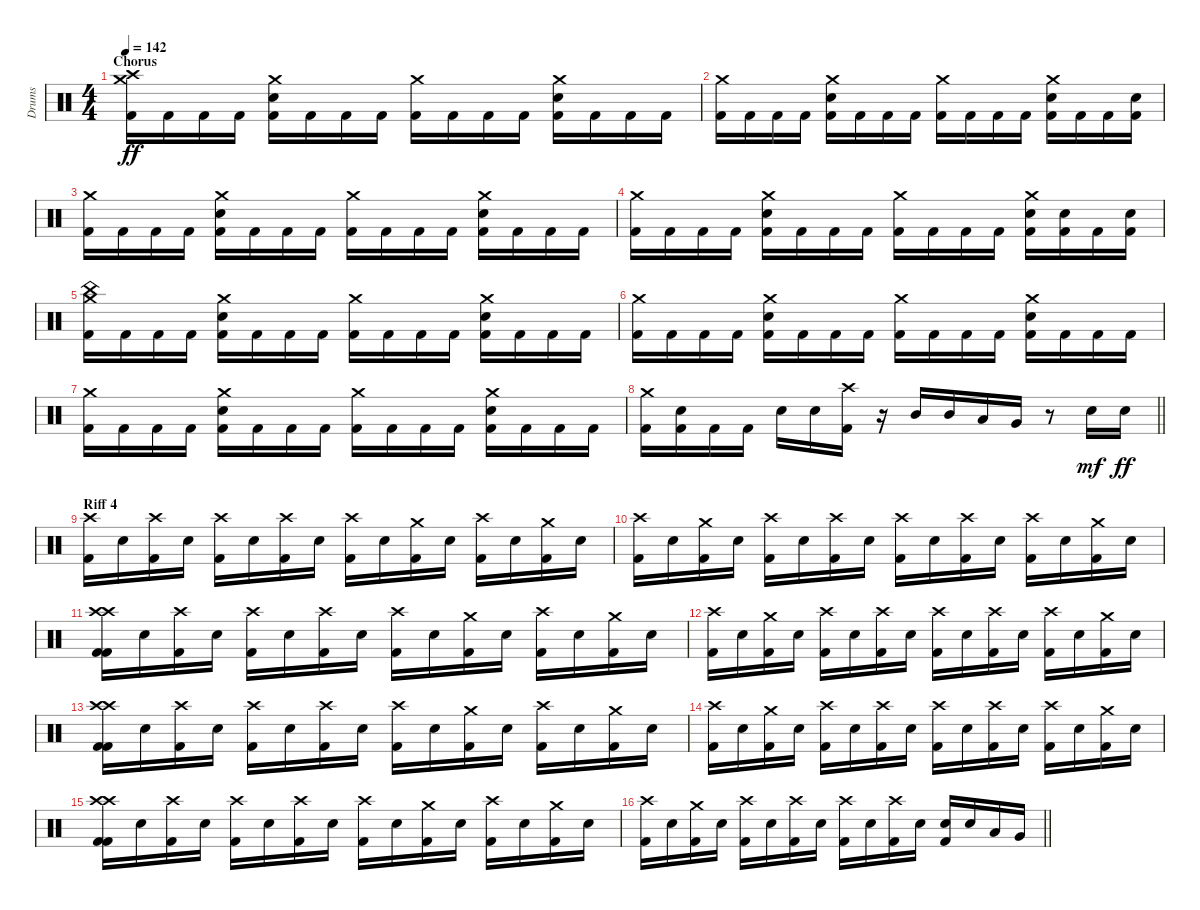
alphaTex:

\track ("Drums" "Drums") {instrument percussion}
\staff {score}
\articulation defaults
\ts (4 4)
\section ("" "Chorus")
\tempo 142
\clef neutral
\ks c
("Crash high (hit)" "Crash medium (hit)" "Kick (hit) 2").16{dy ff} "Kick (hit) 2".16 "Kick (hit) 2".16 "Kick (hit) 2".16 ("Crash medium (hit)" "Kick (hit) 2" "Snare (hit) 2").16 "Kick (hit) 2".16 "Kick (hit) 2".16 "Kick (hit) 2".16 ("Crash medium (hit)" "Kick (hit) 2").16 "Kick (hit) 2".16 "Kick (hit) 2".16 "Kick (hit) 2".16 ("Crash medium (hit)" "Kick (hit) 2" "Snare (hit) 2").16 "Kick (hit) 2".16 "Kick (hit) 2".16 "Kick (hit) 2".16 |
("Crash medium (hit)" "Kick (hit) 2").16 "Kick (hit) 2".16 "Kick (hit) 2".16 "Kick (hit) 2".16 ("Crash medium (hit)" "Kick (hit) 2" "Snare (hit) 2").16 "Kick (hit) 2".16 "Kick (hit) 2".16 "Kick (hit) 2".16 ("Crash medium (hit)" "Kick (hit) 2").16 "Kick (hit) 2".16 "Kick (hit) 2".16 "Kick (hit) 2".16 ("Crash medium (hit)" "Kick (hit) 2" "Snare (hit) 2").16 "Kick (hit) 2".16 "Kick (hit) 2".16 ("Kick (hit) 2" "Snare (hit) 2").16 |
("Crash medium (hit)" "Kick (hit) 2").16 "Kick (hit) 2".16 "Kick (hit) 2".16 "Kick (hit) 2".16 ("Crash medium (hit)" "Kick (hit) 2" "Snare (hit) 2").16 "Kick (hit) 2".16 "Kick (hit) 2".16 "Kick (hit) 2".16 ("Crash medium (hit)" "Kick (hit) 2").16 "Kick (hit) 2".16 "Kick (hit) 2".16 "Kick (hit) 2".16 ("Crash medium (hit)" "Kick (hit) 2" "Snare (hit) 2").16 "Kick (hit) 2".16 "Kick (hit) 2".16 "Kick (hit) 2".16 |
("Crash medium (hit)" "Kick (hit) 2").16 "Kick (hit) 2".16 "Kick (hit) 2".16 "Kick (hit) 2".16 ("Crash medium (hit)" "Kick (hit) 2" "Snare (hit) 2").16 "Kick (hit) 2".16 "Kick (hit) 2".16 "Kick (hit) 2".16 ("Crash medium (hit)" "Kick (hit) 2").16 "Kick (hit) 2".16 "Kick (hit) 2".16 "Kick (hit) 2".16 ("Crash medium (hit)" "Kick (hit) 2" "Snare (hit) 2").16 ("Kick (hit) 2" "Snare (hit) 2").16 "Kick (hit) 2".16 ("Kick (hit) 2" "Snare (hit) 2").16 |
("China (hit)" "Crash medium (hit)" "Kick (hit) 2").16 "Kick (hit) 2".16 "Kick (hit) 2".16 "Kick (hit) 2".16 ("Crash medium (hit)" "Kick (hit) 2" "Snare (hit) 2").16 "Kick (hit) 2".16 "Kick (hit) 2".16 "Kick (hit) 2".16 ("Crash medium (hit)" "Kick (hit) 2").16 "Kick (hit) 2".16 "Kick (hit) 2".16 "Kick (hit) 2".16 ("Crash medium (hit)" "Kick (hit) 2" "Snare (hit) 2").16 "Kick (hit) 2".16 "Kick (hit) 2".16 "Kick (hit) 2".16 |
("Crash medium (hit)" "Kick (hit) 2").16 "Kick (hit) 2".16 "Kick (hit) 2".16 "Kick (hit) 2".16 ("Crash medium (hit)" "Kick (hit) 2" "Snare (hit) 2").16 "Kick (hit) 2".16 "Kick (hit) 2".16 "Kick (hit) 2".16 ("Crash medium (hit)" "Kick (hit) 2").16 "Kick (hit) 2".16 "Kick (hit) 2".16 "Kick (hit) 2".16 ("Crash medium (hit)" "Kick (hit) 2" "Snare (hit) 2").16 "Kick (hit) 2".16 "Kick (hit) 2".16 "Kick (hit) 2".16 |
("Crash medium (hit)" "Kick (hit) 2").16 "Kick (hit) 2".16 "Kick (hit) 2".16 "Kick (hit) 2".16 ("Crash medium (hit)" "Kick (hit) 2" "Snare (hit) 2").16 "Kick (hit) 2".16 "Kick (hit) 2".16 "Kick (hit) 2".16 ("Crash medium (hit)" "Kick (hit) 2").16 "Kick (hit) 2".16 "Kick (hit) 2".16 "Kick (hit) 2".16 ("Crash medium (hit)" "Kick (hit) 2" "Snare (hit) 2").16 "Kick (hit) 2".16 "Kick (hit) 2".16 "Kick (hit) 2".16 |
\barLineRight lightlight
("Crash medium (hit)" "Kick (hit) 2").16 ("Kick (hit) 2" "Snare (hit) 2").16 "Kick (hit) 2".16 "Kick (hit) 2".16 "Snare (hit) 2".16 "Snare (hit) 2".16 ("Crash high (hit)" "Kick (hit) 2").16 r.16 "Mid Tom (hit)".16 "Mid Tom (hit)".16 "Low Tom (hit)".16 "Very Low Tom (hit)".16 r.8 "Snare (hit) 2".16{dy mf} "Snare (hit) 2".16{dy ff} |
\section ("" "Riff 4")
("Crash high (hit)" "Kick (hit) 2").16 "Snare (hit) 2".16 ("Crash high (hit)" "Kick (hit) 2").16 "Snare (hit) 2".16 ("Crash high (hit)" "Kick (hit) 2").16 "Snare (hit) 2".16 ("Crash high (hit)" "Kick (hit) 2").16 "Snare (hit) 2".16 ("Crash high (hit)" "Kick (hit) 2").16 "Snare (hit) 2".16 ("Crash medium (hit)" "Kick (hit) 2").16 "Snare (hit) 2".16 ("Crash high (hit)" "Kick (hit) 2").16 "Snare (hit) 2".16 ("Crash medium (hit)" "Kick (hit) 2").16 "Snare (hit) 2".16 |
("Crash high (hit)" "Kick (hit) 2").16 "Snare (hit) 2".16 ("Crash medium (hit)" "Kick (hit) 2").16 "Snare (hit) 2".16 ("Crash high (hit)" "Kick (hit) 2").16 "Snare (hit) 2".16 ("Crash high (hit)" "Kick (hit) 2").16 "Snare (hit) 2".16 ("Crash high (hit)" "Kick (hit) 2").16 "Snare (hit) 2".16 ("Crash high (hit)" "Kick (hit) 2").16 "Snare (hit) 2".16 ("Crash high (hit)" "Kick (hit) 2").16 "Snare (hit) 2".16 ("Crash medium (hit)" "Kick (hit) 2").16 "Snare (hit) 2".16 |
("Crash high (hit)" "Kick (hit) 2" "Crash high (hit)" "Kick (hit) 2").16 "Snare (hit) 2".16 ("Crash high (hit)" "Kick (hit) 2").16 "Snare (hit) 2".16 ("Crash high (hit)" "Kick (hit) 2").16 "Snare (hit) 2".16 ("Crash high (hit)" "Kick (hit) 2").16 "Snare (hit) 2".16 ("Crash high (hit)" "Kick (hit) 2").16 "Snare (hit) 2".16 ("Crash medium (hit)" "Kick (hit) 2").16 "Snare (hit) 2".16 ("Crash high (hit)" "Kick (hit) 2").16 "Snare (hit) 2".16 ("Crash medium (hit)" "Kick (hit) 2").16 "Snare (hit) 2".16 |
("Crash high (hit)" "Kick (hit) 2").16 "Snare (hit) 2".16 ("Crash medium (hit)" "Kick (hit) 2").16 "Snare (hit) 2".16 ("Crash high (hit)" "Kick (hit) 2").16 "Snare (hit) 2".16 ("Crash high (hit)" "Kick (hit) 2").16 "Snare (hit) 2".16 ("Crash high (hit)" "Kick (hit) 2").16 "Snare (hit) 2".16 ("Crash high (hit)" "Kick (hit) 2").16 "Snare (hit) 2".16 ("Crash high (hit)" "Kick (hit) 2").16 "Snare (hit) 2".16 ("Crash medium (hit)" "Kick (hit) 2").16 "Snare (hit) 2".16 |
("Crash high (hit)" "Kick (hit) 2" "Crash high (hit)" "Kick (hit) 2").16 "Snare (hit) 2".16 ("Crash high (hit)" "Kick (hit) 2").16 "Snare (hit) 2".16 ("Crash high (hit)" "Kick (hit) 2").16 "Snare (hit) 2".16 ("Crash high (hit)" "Kick (hit) 2").16 "Snare (hit) 2".16 ("Crash high (hit)" "Kick (hit) 2").16 "Snare (hit) 2".16 ("Crash medium (hit)" "Kick (hit) 2").16 "Snare (hit) 2".16 ("Crash high (hit)" "Kick (hit) 2").16 "Snare (hit) 2".16 ("Crash medium (hit)" "Kick (hit) 2").16 "Snare (hit) 2".16 |
("Crash high (hit)" "Kick (hit) 2").16 "Snare (hit) 2".16 ("Crash medium (hit)" "Kick (hit) 2").16 "Snare (hit) 2".16 ("Crash high (hit)" "Kick (hit) 2").16 "Snare (hit) 2".16 ("Crash high (hit)" "Kick (hit) 2").16 "Snare (hit) 2".16 ("Crash high (hit)" "Kick (hit) 2").16 "Snare (hit) 2".16 ("Crash high (hit)" "Kick (hit) 2").16 "Snare (hit) 2".16 ("Crash high (hit)" "Kick (hit) 2").16 "Snare (hit) 2".16 ("Crash medium (hit)" "Kick (hit) 2").16 "Snare (hit) 2".16 |
("Crash high (hit)" "Kick (hit) 2" "Crash high (hit)" "Kick (hit) 2").16 "Snare (hit) 2".16 ("Crash high (hit)" "Kick (hit) 2").16 "Snare (hit) 2".16 ("Crash high (hit)" "Kick (hit) 2").16 "Snare (hit) 2".16 ("Crash high (hit)" "Kick (hit) 2").16 "Snare (hit) 2".16 ("Crash high (hit)" "Kick (hit) 2").16 "Snare (hit) 2".16 ("Crash medium (hit)" "Kick (hit) 2").16 "Snare (hit) 2".16 ("Crash high (hit)" "Kick (hit) 2").16 "Snare (hit) 2".16 ("Crash medium (hit)" "Kick (hit) 2").16 "Snare (hit) 2".16 |
\barLineRight lightlight
("Crash high (hit)" "Kick (hit) 2").16 "Snare (hit) 2".16 ("Crash medium (hit)" "Kick (hit) 2").16 "Snare (hit) 2".16 ("Crash high (hit)" "Kick (hit) 2").16 "Snare (hit) 2".16 ("Crash high (hit)" "Kick (hit) 2").16 "Snare (hit) 2".16 ("Crash high (hit)" "Kick (hit) 2").16 "Snare (hit) 2".16 ("Crash high (hit)" "Kick (hit) 2").16 "Snare (hit) 2".16 ("Kick (hit) 2" "Snare (hit) 2").16 "Snare (hit) 2".16 "Low Tom (hit)".16 "Very Low Tom (hit)".16
